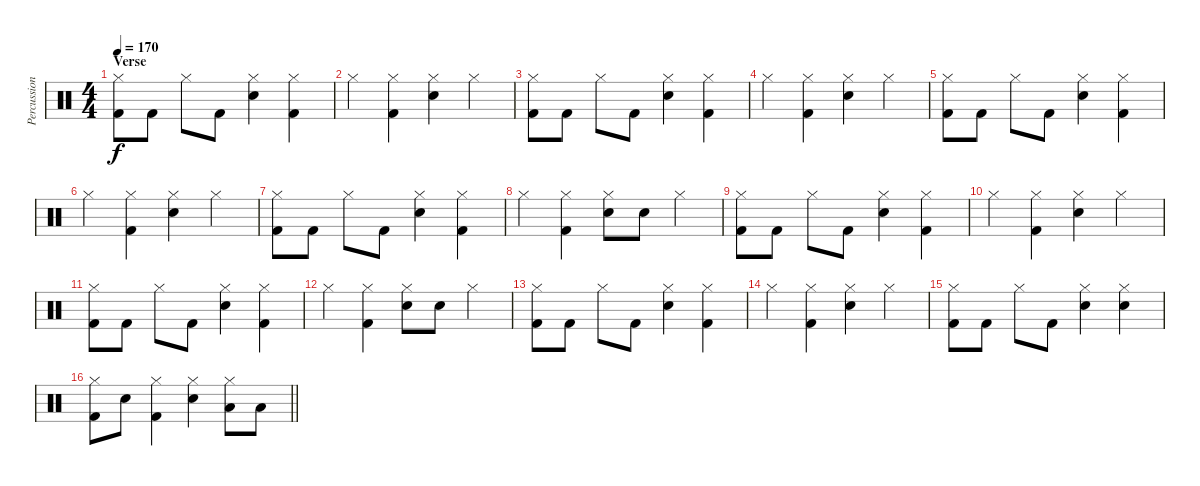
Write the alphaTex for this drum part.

\track ("Percussion" "Percussion") {instrument percussion}
\staff {score}
\articulation defaults
\ts (4 4)
\section ("" "Verse")
\tempo 170
\clef neutral
\ks c
("Hi-Hat (closed)" "Kick (hit) 2").8{dy f} "Kick (hit) 2".8 "Hi-Hat (closed)".8 "Kick (hit) 2".8 ("Hi-Hat (closed)" "Electric Snare (hit)").4 ("Hi-Hat (closed)" "Kick (hit) 2").4 |
"Hi-Hat (closed)".4 ("Hi-Hat (closed)" "Kick (hit) 2").4 ("Hi-Hat (closed)" "Electric Snare (hit)").4 "Hi-Hat (closed)".4 |
("Hi-Hat (closed)" "Kick (hit) 2").8 "Kick (hit) 2".8 "Hi-Hat (closed)".8 "Kick (hit) 2".8 ("Hi-Hat (closed)" "Electric Snare (hit)").4 ("Hi-Hat (closed)" "Kick (hit) 2").4 |
"Hi-Hat (closed)".4 ("Hi-Hat (closed)" "Kick (hit) 2").4 ("Hi-Hat (closed)" "Electric Snare (hit)").4 "Hi-Hat (closed)".4 |
("Hi-Hat (closed)" "Kick (hit) 2").8 "Kick (hit) 2".8 "Hi-Hat (closed)".8 "Kick (hit) 2".8 ("Hi-Hat (closed)" "Electric Snare (hit)").4 ("Hi-Hat (closed)" "Kick (hit) 2").4 |
"Hi-Hat (closed)".4 ("Hi-Hat (closed)" "Kick (hit) 2").4 ("Hi-Hat (closed)" "Electric Snare (hit)").4 "Hi-Hat (closed)".4 |
("Hi-Hat (closed)" "Kick (hit) 2").8 "Kick (hit) 2".8 "Hi-Hat (closed)".8 "Kick (hit) 2".8 ("Hi-Hat (closed)" "Electric Snare (hit)").4 ("Hi-Hat (closed)" "Kick (hit) 2").4 |
"Hi-Hat (closed)".4 ("Hi-Hat (closed)" "Kick (hit) 2").4 ("Hi-Hat (closed)" "Electric Snare (hit)").8 "Electric Snare (hit)".8 "Hi-Hat (closed)".4 |
("Hi-Hat (closed)" "Kick (hit) 2").8 "Kick (hit) 2".8 "Hi-Hat (closed)".8 "Kick (hit) 2".8 ("Hi-Hat (closed)" "Electric Snare (hit)").4 ("Hi-Hat (closed)" "Kick (hit) 2").4 |
"Hi-Hat (closed)".4 ("Hi-Hat (closed)" "Kick (hit) 2").4 ("Hi-Hat (closed)" "Electric Snare (hit)").4 "Hi-Hat (closed)".4 |
("Hi-Hat (closed)" "Kick (hit) 2").8 "Kick (hit) 2".8 "Hi-Hat (closed)".8 "Kick (hit) 2".8 ("Hi-Hat (closed)" "Electric Snare (hit)").4 ("Hi-Hat (closed)" "Kick (hit) 2").4 |
"Hi-Hat (closed)".4 ("Hi-Hat (closed)" "Kick (hit) 2").4 ("Hi-Hat (closed)" "Electric Snare (hit)").8 "Electric Snare (hit)".8 "Hi-Hat (closed)".4 |
("Hi-Hat (closed)" "Kick (hit) 2").8 "Kick (hit) 2".8 "Hi-Hat (closed)".8 "Kick (hit) 2".8 ("Hi-Hat (closed)" "Electric Snare (hit)").4 ("Hi-Hat (closed)" "Kick (hit) 2").4 |
"Hi-Hat (closed)".4 ("Hi-Hat (closed)" "Kick (hit) 2").4 ("Hi-Hat (closed)" "Electric Snare (hit)").4 "Hi-Hat (closed)".4 |
("Hi-Hat (closed)" "Kick (hit) 2").8 "Kick (hit) 2".8 "Hi-Hat (closed)".8 "Kick (hit) 2".8 ("Hi-Hat (closed)" "Electric Snare (hit)").4 ("Hi-Hat (closed)" "Electric Snare (hit)").4 |
\barLineRight lightlight
("Hi-Hat (closed)" "Kick (hit) 2").8 "Electric Snare (hit)".8 ("Hi-Hat (closed)" "Kick (hit) 2").4 ("Hi-Hat (closed)" "Electric Snare (hit)").4 ("Hi-Hat (closed)" "Low Floor Tom (hit)").8 "Low Floor Tom (hit)".8
